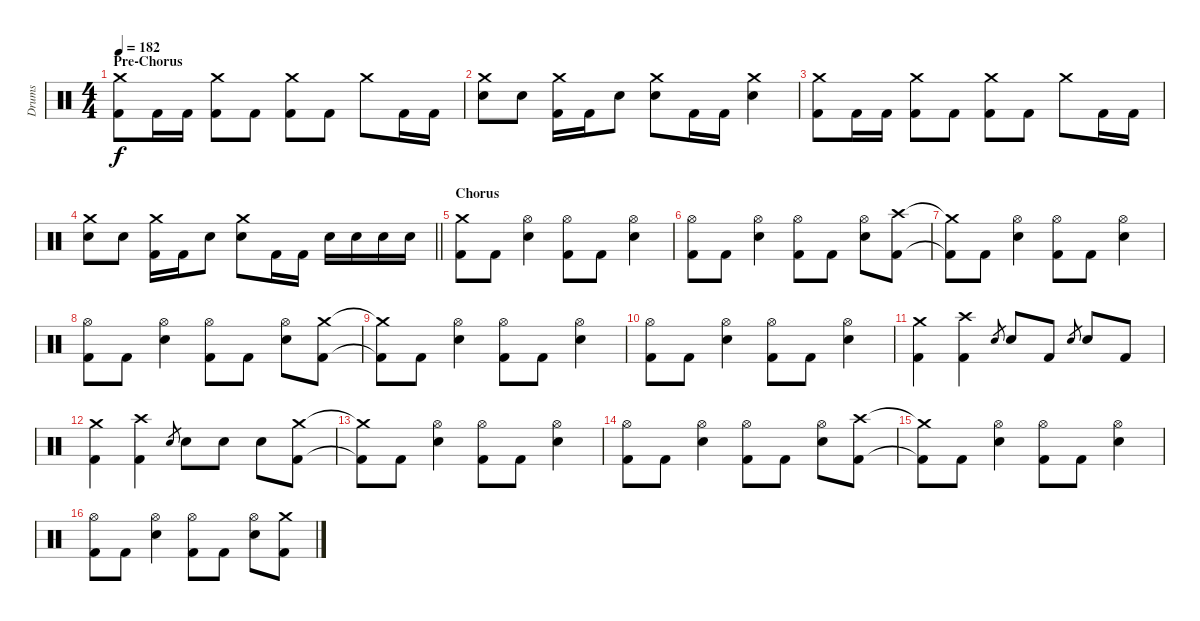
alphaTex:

\track ("Drums" "Drums") {instrument percussion}
\staff {score}
\articulation defaults
\ts (4 4)
\section ("" "Pre-Chorus")
\tempo 182
\clef neutral
\ks c
("Crash medium (hit)" "Kick (hit) 2").8{dy f} "Kick (hit) 2".16 "Kick (hit) 2".16 ("Crash medium (hit)" "Kick (hit) 2").8 "Kick (hit) 2".8 ("Crash medium (hit)" "Kick (hit) 2").8 "Kick (hit) 2".8 "Crash medium (hit)".8 "Kick (hit) 2".16 "Kick (hit) 2".16 |
("Crash medium (hit)" "Electric Snare (hit)").8 "Electric Snare (hit)".8 ("Crash medium (hit)" "Kick (hit) 2").16 "Kick (hit) 2".16 "Electric Snare (hit)".8 ("Crash medium (hit)" "Electric Snare (hit)").8 "Kick (hit) 2".16 "Kick (hit) 2".16 ("Crash medium (hit)" "Electric Snare (hit)").4 |
("Crash medium (hit)" "Kick (hit) 2").8 "Kick (hit) 2".16 "Kick (hit) 2".16 ("Crash medium (hit)" "Kick (hit) 2").8 "Kick (hit) 2".8 ("Crash medium (hit)" "Kick (hit) 2").8 "Kick (hit) 2".8 "Crash medium (hit)".8 "Kick (hit) 2".16 "Kick (hit) 2".16 |
\barLineRight lightlight
("Crash medium (hit)" "Electric Snare (hit)").8 "Electric Snare (hit)".8 ("Crash medium (hit)" "Kick (hit) 2").16 "Kick (hit) 2".16 "Electric Snare (hit)".8 ("Crash medium (hit)" "Electric Snare (hit)").8 "Kick (hit) 2".16 "Kick (hit) 2".16 "Electric Snare (hit)".16 "Electric Snare (hit)".16 "Electric Snare (hit)".16 "Electric Snare (hit)".16 |
\section ("" "Chorus")
("Crash medium (hit)" "Kick (hit) 2").8 "Kick (hit) 2".8 ("Hi-Hat (open)" "Electric Snare (hit)").4 ("Hi-Hat (open)" "Kick (hit) 2").8 "Kick (hit) 2".8 ("Hi-Hat (open)" "Electric Snare (hit)").4 |
("Hi-Hat (open)" "Kick (hit) 2").8 "Kick (hit) 2".8 ("Hi-Hat (open)" "Electric Snare (hit)").4 ("Hi-Hat (open)" "Kick (hit) 2").8 "Kick (hit) 2".8 ("Hi-Hat (open)" "Electric Snare (hit)").8 ("Crash high (hit)" "Kick (hit) 2").8 |
("Crash medium (hit)"{t} "Kick (hit) 2"{t}).8 "Kick (hit) 2".8 ("Hi-Hat (open)" "Electric Snare (hit)").4 ("Hi-Hat (open)" "Kick (hit) 2").8 "Kick (hit) 2".8 ("Hi-Hat (open)" "Electric Snare (hit)").4 |
("Hi-Hat (open)" "Kick (hit) 2").8 "Kick (hit) 2".8 ("Hi-Hat (open)" "Electric Snare (hit)").4 ("Hi-Hat (open)" "Kick (hit) 2").8 "Kick (hit) 2".8 ("Hi-Hat (open)" "Electric Snare (hit)").8 ("Crash medium (hit)" "Kick (hit) 2").8 |
("Crash medium (hit)"{t} "Kick (hit) 2"{t}).8 "Kick (hit) 2".8 ("Hi-Hat (open)" "Electric Snare (hit)").4 ("Hi-Hat (open)" "Kick (hit) 2").8 "Kick (hit) 2".8 ("Hi-Hat (open)" "Electric Snare (hit)").4 |
("Hi-Hat (open)" "Kick (hit) 2").8 "Kick (hit) 2".8 ("Hi-Hat (open)" "Electric Snare (hit)").4 ("Hi-Hat (open)" "Kick (hit) 2").8 "Kick (hit) 2".8 ("Hi-Hat (open)" "Electric Snare (hit)").4 |
("Crash medium (hit)" "Kick (hit) 2").4 ("Crash high (hit)" "Kick (hit) 2").4 "Electric Snare (hit)".8{gr} "Electric Snare (hit)".8 "Kick (hit) 2".8 "Electric Snare (hit)".8{gr} "Electric Snare (hit)".8 "Kick (hit) 2".8 |
("Crash medium (hit)" "Kick (hit) 2").4 ("Crash high (hit)" "Kick (hit) 2").4 "Electric Snare (hit)".8{gr} "Electric Snare (hit)".8 "Electric Snare (hit)".8 "Electric Snare (hit)".8 ("Crash medium (hit)" "Kick (hit) 2").8 |
("Crash medium (hit)"{t} "Kick (hit) 2"{t}).8 "Kick (hit) 2".8 ("Hi-Hat (open)" "Electric Snare (hit)").4 ("Hi-Hat (open)" "Kick (hit) 2").8 "Kick (hit) 2".8 ("Hi-Hat (open)" "Electric Snare (hit)").4 |
("Hi-Hat (open)" "Kick (hit) 2").8 "Kick (hit) 2".8 ("Hi-Hat (open)" "Electric Snare (hit)").4 ("Hi-Hat (open)" "Kick (hit) 2").8 "Kick (hit) 2".8 ("Hi-Hat (open)" "Electric Snare (hit)").8 ("Crash high (hit)" "Kick (hit) 2").8 |
("Crash medium (hit)"{t} "Kick (hit) 2"{t}).8 "Kick (hit) 2".8 ("Hi-Hat (open)" "Electric Snare (hit)").4 ("Hi-Hat (open)" "Kick (hit) 2").8 "Kick (hit) 2".8 ("Hi-Hat (open)" "Electric Snare (hit)").4 |
("Hi-Hat (open)" "Kick (hit) 2").8 "Kick (hit) 2".8 ("Hi-Hat (open)" "Electric Snare (hit)").4 ("Hi-Hat (open)" "Kick (hit) 2").8 "Kick (hit) 2".8 ("Hi-Hat (open)" "Electric Snare (hit)").8 ("Crash medium (hit)" "Kick (hit) 2").8
